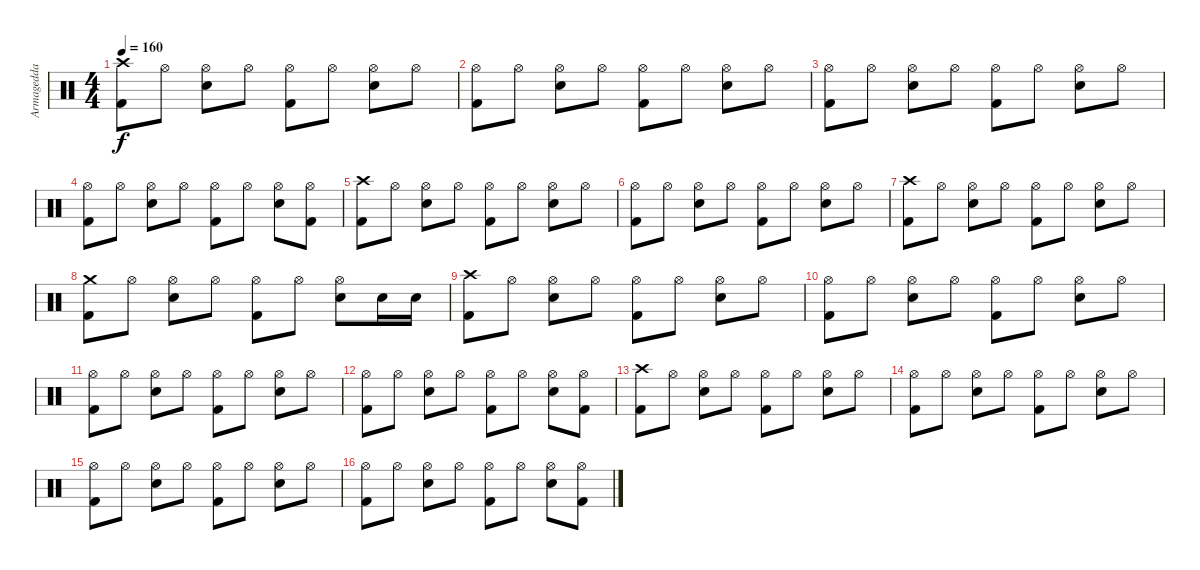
\track ("Armagedda" "Armagedda") {instrument percussion}
\staff {score}
\articulation defaults
\ts (4 4)
\tempo 160
\clef neutral
\ks c
("Crash high (hit)" "Kick (hit) 2").8{dy f} "Hi-Hat (open)".8 ("Hi-Hat (open)" "Snare (hit) 2").8 "Hi-Hat (open)".8 ("Hi-Hat (open)" "Kick (hit) 2").8 "Hi-Hat (open)".8 ("Hi-Hat (open)" "Snare (hit) 2").8 "Hi-Hat (open)".8 |
("Hi-Hat (open)" "Kick (hit) 2").8 "Hi-Hat (open)".8 ("Hi-Hat (open)" "Snare (hit) 2").8 "Hi-Hat (open)".8 ("Hi-Hat (open)" "Kick (hit) 2").8 "Hi-Hat (open)".8 ("Hi-Hat (open)" "Snare (hit) 2").8 "Hi-Hat (open)".8 |
("Hi-Hat (open)" "Kick (hit) 2").8 "Hi-Hat (open)".8 ("Hi-Hat (open)" "Snare (hit) 2").8 "Hi-Hat (open)".8 ("Hi-Hat (open)" "Kick (hit) 2").8 "Hi-Hat (open)".8 ("Hi-Hat (open)" "Snare (hit) 2").8 "Hi-Hat (open)".8 |
("Hi-Hat (open)" "Kick (hit) 2").8 "Hi-Hat (open)".8 ("Hi-Hat (open)" "Snare (hit) 2").8 "Hi-Hat (open)".8 ("Hi-Hat (open)" "Kick (hit) 2").8 "Hi-Hat (open)".8 ("Hi-Hat (open)" "Snare (hit) 2").8 ("Hi-Hat (open)" "Kick (hit) 2").8 |
("Crash high (hit)" "Kick (hit) 2").8 "Hi-Hat (open)".8 ("Hi-Hat (open)" "Snare (hit) 2").8 "Hi-Hat (open)".8 ("Hi-Hat (open)" "Kick (hit) 2").8 "Hi-Hat (open)".8 ("Hi-Hat (open)" "Snare (hit) 2").8 "Hi-Hat (open)".8 |
("Hi-Hat (open)" "Kick (hit) 2").8 "Hi-Hat (open)".8 ("Hi-Hat (open)" "Snare (hit) 2").8 "Hi-Hat (open)".8 ("Hi-Hat (open)" "Kick (hit) 2").8 "Hi-Hat (open)".8 ("Hi-Hat (open)" "Snare (hit) 2").8 "Hi-Hat (open)".8 |
("Crash high (hit)" "Kick (hit) 2").8 "Hi-Hat (open)".8 ("Hi-Hat (open)" "Snare (hit) 2").8 "Hi-Hat (open)".8 ("Hi-Hat (open)" "Kick (hit) 2").8 "Hi-Hat (open)".8 ("Hi-Hat (open)" "Snare (hit) 2").8 "Hi-Hat (open)".8 |
("Crash medium (hit)" "Kick (hit) 2").8 "Hi-Hat (open)".8 ("Hi-Hat (open)" "Snare (hit) 2").8 "Hi-Hat (open)".8 ("Hi-Hat (open)" "Kick (hit) 2").8 "Hi-Hat (open)".8 ("Hi-Hat (open)" "Snare (hit) 2").8 "Snare (hit) 2".16 "Snare (hit) 2".16 |
("Crash high (hit)" "Kick (hit) 2").8 "Hi-Hat (open)".8 ("Hi-Hat (open)" "Snare (hit) 2").8 "Hi-Hat (open)".8 ("Hi-Hat (open)" "Kick (hit) 2").8 "Hi-Hat (open)".8 ("Hi-Hat (open)" "Snare (hit) 2").8 "Hi-Hat (open)".8 |
("Hi-Hat (open)" "Kick (hit) 2").8 "Hi-Hat (open)".8 ("Hi-Hat (open)" "Snare (hit) 2").8 "Hi-Hat (open)".8 ("Hi-Hat (open)" "Kick (hit) 2").8 "Hi-Hat (open)".8 ("Hi-Hat (open)" "Snare (hit) 2").8 "Hi-Hat (open)".8 |
("Hi-Hat (open)" "Kick (hit) 2").8 "Hi-Hat (open)".8 ("Hi-Hat (open)" "Snare (hit) 2").8 "Hi-Hat (open)".8 ("Hi-Hat (open)" "Kick (hit) 2").8 "Hi-Hat (open)".8 ("Hi-Hat (open)" "Snare (hit) 2").8 "Hi-Hat (open)".8 |
("Hi-Hat (open)" "Kick (hit) 2").8 "Hi-Hat (open)".8 ("Hi-Hat (open)" "Snare (hit) 2").8 "Hi-Hat (open)".8 ("Hi-Hat (open)" "Kick (hit) 2").8 "Hi-Hat (open)".8 ("Hi-Hat (open)" "Snare (hit) 2").8 ("Hi-Hat (open)" "Kick (hit) 2").8 |
("Crash high (hit)" "Kick (hit) 2").8 "Hi-Hat (open)".8 ("Hi-Hat (open)" "Snare (hit) 2").8 "Hi-Hat (open)".8 ("Hi-Hat (open)" "Kick (hit) 2").8 "Hi-Hat (open)".8 ("Hi-Hat (open)" "Snare (hit) 2").8 "Hi-Hat (open)".8 |
("Hi-Hat (open)" "Kick (hit) 2").8 "Hi-Hat (open)".8 ("Hi-Hat (open)" "Snare (hit) 2").8 "Hi-Hat (open)".8 ("Hi-Hat (open)" "Kick (hit) 2").8 "Hi-Hat (open)".8 ("Hi-Hat (open)" "Snare (hit) 2").8 "Hi-Hat (open)".8 |
("Hi-Hat (open)" "Kick (hit) 2").8 "Hi-Hat (open)".8 ("Hi-Hat (open)" "Snare (hit) 2").8 "Hi-Hat (open)".8 ("Hi-Hat (open)" "Kick (hit) 2").8 "Hi-Hat (open)".8 ("Hi-Hat (open)" "Snare (hit) 2").8 "Hi-Hat (open)".8 |
("Hi-Hat (open)" "Kick (hit) 2").8 "Hi-Hat (open)".8 ("Hi-Hat (open)" "Snare (hit) 2").8 "Hi-Hat (open)".8 ("Hi-Hat (open)" "Kick (hit) 2").8 "Hi-Hat (open)".8 ("Hi-Hat (open)" "Snare (hit) 2").8 ("Hi-Hat (open)" "Kick (hit) 2").8
